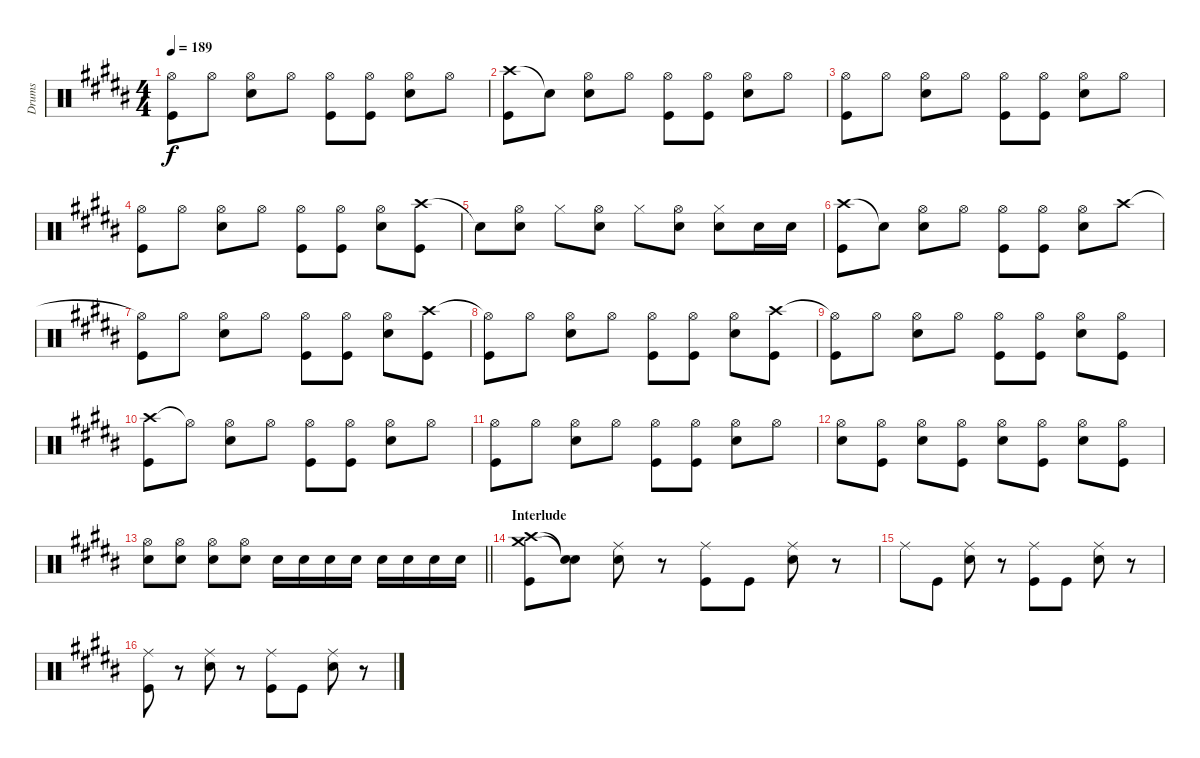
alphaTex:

\track ("Drums" "Drums") {instrument percussion}
\staff {score}
\articulation defaults
\ts (4 4)
\tempo 189
\clef neutral
\ks b
("Hi-Hat (open)"{t} "Kick (hit)").8{dy f} "Hi-Hat (open)".8 ("Hi-Hat (open)" "Snare (hit) 2").8 "Hi-Hat (open)".8 ("Hi-Hat (open)" "Kick (hit)").8 ("Hi-Hat (open)" "Kick (hit)").8 ("Hi-Hat (open)" "Snare (hit) 2").8 "Hi-Hat (open)".8 |
("Crash high (hit)" "Kick (hit)").8 "Snare (hit)"{t}.8 ("Hi-Hat (open)" "Snare (hit) 2").8 "Hi-Hat (open)".8 ("Hi-Hat (open)" "Kick (hit)").8 ("Hi-Hat (open)" "Kick (hit)").8 ("Hi-Hat (open)" "Snare (hit) 2").8 "Hi-Hat (open)".8 |
("Hi-Hat (open)" "Kick (hit)").8 "Hi-Hat (open)".8 ("Hi-Hat (open)" "Snare (hit) 2").8 "Hi-Hat (open)".8 ("Hi-Hat (open)" "Kick (hit)").8 ("Hi-Hat (open)" "Kick (hit)").8 ("Hi-Hat (open)" "Snare (hit) 2").8 "Hi-Hat (open)".8 |
("Hi-Hat (open)" "Kick (hit)").8 "Hi-Hat (open)".8 ("Hi-Hat (open)" "Snare (hit) 2").8 "Hi-Hat (open)".8 ("Hi-Hat (open)" "Kick (hit)").8 ("Hi-Hat (open)" "Kick (hit)").8 ("Hi-Hat (open)" "Snare (hit) 2").8 ("Crash high (hit)" "Kick (hit)").8 |
"Snare (hit)"{t}.8 ("Hi-Hat (open)" "Snare (hit) 2").8 "Hi-Hat (closed)".8 ("Hi-Hat (open)" "Snare (hit) 2").8 "Hi-Hat (closed)".8 ("Hi-Hat (open)" "Snare (hit) 2").8 ("Hi-Hat (closed)" "Snare (hit) 2").8 "Snare (hit) 2".16 "Snare (hit) 2".16 |
("Crash high (hit)" "Kick (hit)").8 "Snare (hit)"{t}.8 ("Hi-Hat (open)" "Snare (hit) 2").8 "Hi-Hat (open)".8 ("Hi-Hat (open)" "Kick (hit)").8 ("Hi-Hat (open)" "Kick (hit)").8 ("Hi-Hat (open)" "Snare (hit) 2").8 "Crash high (hit)".8 |
("Hi-Hat (open)"{t} "Kick (hit)").8 "Hi-Hat (open)".8 ("Hi-Hat (open)" "Snare (hit) 2").8 "Hi-Hat (open)".8 ("Hi-Hat (open)" "Kick (hit)").8 ("Hi-Hat (open)" "Kick (hit)").8 ("Hi-Hat (open)" "Snare (hit) 2").8 ("Crash high (hit)" "Kick (hit)").8 |
("Hi-Hat (open)"{t} "Kick (hit)").8 "Hi-Hat (open)".8 ("Hi-Hat (open)" "Snare (hit) 2").8 "Hi-Hat (open)".8 ("Hi-Hat (open)" "Kick (hit)").8 ("Hi-Hat (open)" "Kick (hit)").8 ("Hi-Hat (open)" "Snare (hit) 2").8 ("Crash high (hit)" "Kick (hit)").8 |
("Hi-Hat (open)"{t} "Kick (hit)").8 "Hi-Hat (open)".8 ("Hi-Hat (open)" "Snare (hit) 2").8 "Hi-Hat (open)".8 ("Hi-Hat (open)" "Kick (hit)").8 ("Hi-Hat (open)" "Kick (hit)").8 ("Hi-Hat (open)" "Snare (hit) 2").8 ("Hi-Hat (open)" "Kick (hit)").8 |
("Crash high (hit)" "Kick (hit)").8 "Hi-Hat (open)"{t}.8 ("Hi-Hat (open)" "Snare (hit) 2").8 "Hi-Hat (open)".8 ("Hi-Hat (open)" "Kick (hit)").8 ("Hi-Hat (open)" "Kick (hit)").8 ("Hi-Hat (open)" "Snare (hit) 2").8 "Hi-Hat (open)".8 |
("Hi-Hat (open)" "Kick (hit)").8 "Hi-Hat (open)".8 ("Hi-Hat (open)" "Snare (hit) 2").8 "Hi-Hat (open)".8 ("Hi-Hat (open)" "Kick (hit)").8 ("Hi-Hat (open)" "Kick (hit)").8 ("Hi-Hat (open)" "Snare (hit) 2").8 "Hi-Hat (open)".8 |
("Hi-Hat (open)" "Snare (hit) 2").8 ("Hi-Hat (open)" "Kick (hit)").8 ("Hi-Hat (open)" "Snare (hit) 2").8 ("Hi-Hat (open)" "Kick (hit)").8 ("Hi-Hat (open)" "Snare (hit) 2").8 ("Hi-Hat (open)" "Kick (hit)").8 ("Hi-Hat (open)" "Snare (hit) 2").8 ("Hi-Hat (open)" "Kick (hit)").8 |
\barLineRight lightlight
("Hi-Hat (open)" "Snare (hit) 2").8 ("Hi-Hat (open)" "Snare (hit) 2").8 ("Hi-Hat (open)" "Snare (hit) 2").8 ("Hi-Hat (open)" "Snare (hit) 2").8 "Snare (hit) 2".16 "Snare (hit) 2".16 "Snare (hit) 2".16 "Snare (hit) 2".16 "Snare (hit) 2".16 "Snare (hit) 2".16 "Snare (hit) 2".16 "Snare (hit) 2".16 |
\section ("" "Interlude")
("Crash high (hit)" "Crash medium (hit)" "Kick (hit)").8 ("Snare (hit)"{t} "Snare (hit)"{t}).8 ("Ride (middle)" "Snare (hit) 2").8 r.8 ("Ride (middle)" "Kick (hit)").8 "Kick (hit)".8 ("Ride (middle)" "Snare (hit) 2").8 r.8 |
"Ride (middle)".8 "Kick (hit)".8 ("Ride (middle)" "Snare (hit) 2").8 r.8 ("Ride (middle)" "Kick (hit)").8 "Kick (hit)".8 ("Ride (middle)" "Snare (hit) 2").8 r.8 |
("Ride (middle)" "Kick (hit)").8 r.8 ("Ride (middle)" "Snare (hit) 2").8 r.8 ("Ride (middle)" "Kick (hit)").8 "Kick (hit)".8 ("Ride (middle)" "Snare (hit) 2").8 r.8
